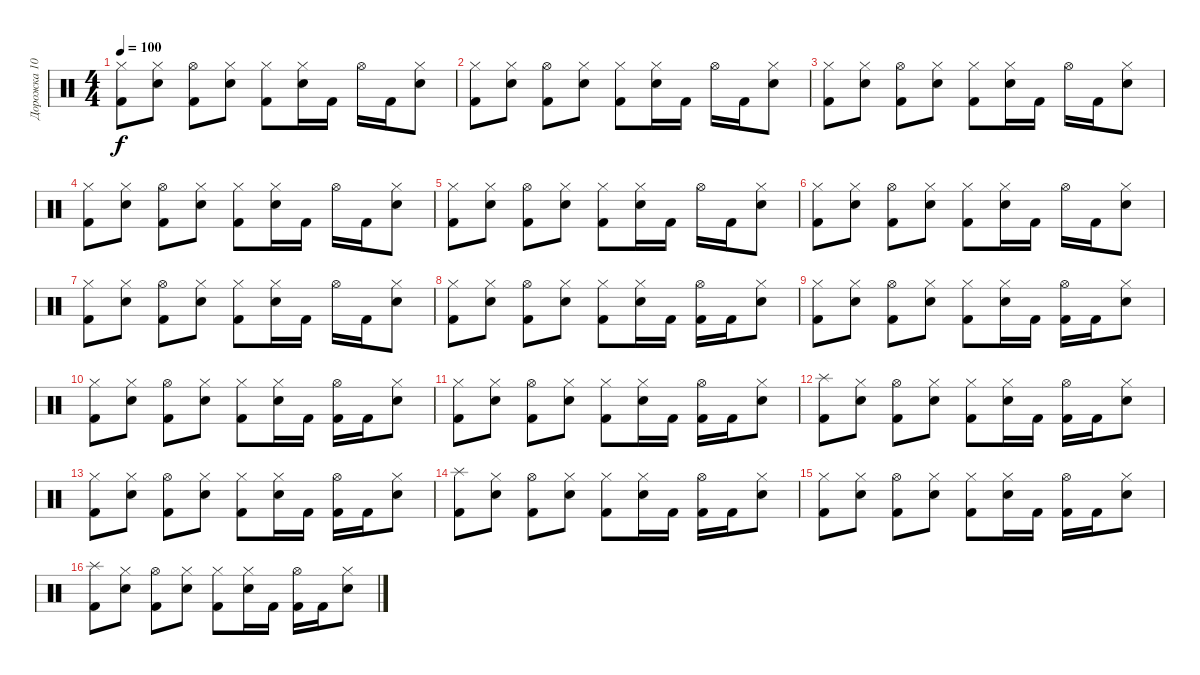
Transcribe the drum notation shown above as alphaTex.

\track ("Дорожка 10" "Дорожка 10") {instrument percussion}
\staff {score}
\articulation defaults
\ts (4 4)
\tempo 100
\clef neutral
\ks c
("Kick (hit) 2" "Hi-Hat (closed)").8{dy f} ("Electric Snare (hit)" "Hi-Hat (closed)").8 ("Kick (hit) 2" "Hi-Hat (open)").8 ("Electric Snare (hit)" "Hi-Hat (closed)").8 ("Kick (hit) 2" "Hi-Hat (closed)").8 ("Electric Snare (hit)" "Hi-Hat (closed)").16 "Kick (hit) 2".16 "Hi-Hat (open)".16 "Kick (hit) 2".16 ("Electric Snare (hit)" "Hi-Hat (closed)").8 |
("Kick (hit) 2" "Hi-Hat (closed)").8 ("Electric Snare (hit)" "Hi-Hat (closed)").8 ("Kick (hit) 2" "Hi-Hat (open)").8 ("Electric Snare (hit)" "Hi-Hat (closed)").8 ("Kick (hit) 2" "Hi-Hat (closed)").8 ("Electric Snare (hit)" "Hi-Hat (closed)").16 "Kick (hit) 2".16 "Hi-Hat (open)".16 "Kick (hit) 2".16 ("Electric Snare (hit)" "Hi-Hat (closed)").8 |
("Kick (hit) 2" "Hi-Hat (closed)").8 ("Electric Snare (hit)" "Hi-Hat (closed)").8 ("Kick (hit) 2" "Hi-Hat (open)").8 ("Electric Snare (hit)" "Hi-Hat (closed)").8 ("Kick (hit) 2" "Hi-Hat (closed)").8 ("Electric Snare (hit)" "Hi-Hat (closed)").16 "Kick (hit) 2".16 "Hi-Hat (open)".16 "Kick (hit) 2".16 ("Electric Snare (hit)" "Hi-Hat (closed)").8 |
("Kick (hit) 2" "Hi-Hat (closed)").8 ("Electric Snare (hit)" "Hi-Hat (closed)").8 ("Kick (hit) 2" "Hi-Hat (open)").8 ("Electric Snare (hit)" "Hi-Hat (closed)").8 ("Kick (hit) 2" "Hi-Hat (closed)").8 ("Electric Snare (hit)" "Hi-Hat (closed)").16 "Kick (hit) 2".16 "Hi-Hat (open)".16 "Kick (hit) 2".16 ("Electric Snare (hit)" "Hi-Hat (closed)").8 |
("Kick (hit) 2" "Hi-Hat (closed)").8 ("Electric Snare (hit)" "Hi-Hat (closed)").8 ("Kick (hit) 2" "Hi-Hat (open)").8 ("Electric Snare (hit)" "Hi-Hat (closed)").8 ("Kick (hit) 2" "Hi-Hat (closed)").8 ("Electric Snare (hit)" "Hi-Hat (closed)").16 "Kick (hit) 2".16 "Hi-Hat (open)".16 "Kick (hit) 2".16 ("Electric Snare (hit)" "Hi-Hat (closed)").8 |
("Kick (hit) 2" "Hi-Hat (closed)").8 ("Electric Snare (hit)" "Hi-Hat (closed)").8 ("Kick (hit) 2" "Hi-Hat (open)").8 ("Electric Snare (hit)" "Hi-Hat (closed)").8 ("Kick (hit) 2" "Hi-Hat (closed)").8 ("Electric Snare (hit)" "Hi-Hat (closed)").16 "Kick (hit) 2".16 "Hi-Hat (open)".16 "Kick (hit) 2".16 ("Electric Snare (hit)" "Hi-Hat (closed)").8 |
("Kick (hit) 2" "Hi-Hat (closed)").8 ("Electric Snare (hit)" "Hi-Hat (closed)").8 ("Kick (hit) 2" "Hi-Hat (open)").8 ("Electric Snare (hit)" "Hi-Hat (closed)").8 ("Kick (hit) 2" "Hi-Hat (closed)").8 ("Electric Snare (hit)" "Hi-Hat (closed)").16 "Kick (hit) 2".16 "Hi-Hat (open)".16 "Kick (hit) 2".16 ("Electric Snare (hit)" "Hi-Hat (closed)").8 |
("Kick (hit) 2" "Hi-Hat (closed)").8 ("Electric Snare (hit)" "Hi-Hat (closed)").8 ("Kick (hit) 2" "Hi-Hat (open)").8 ("Electric Snare (hit)" "Hi-Hat (closed)").8 ("Kick (hit) 2" "Hi-Hat (closed)").8 ("Electric Snare (hit)" "Hi-Hat (closed)").16 "Kick (hit) 2".16 ("Kick (hit) 2" "Hi-Hat (open)").16 "Kick (hit) 2".16 ("Electric Snare (hit)" "Hi-Hat (closed)").8 |
("Kick (hit) 2" "Hi-Hat (closed)").8 ("Electric Snare (hit)" "Hi-Hat (closed)").8 ("Kick (hit) 2" "Hi-Hat (open)").8 ("Electric Snare (hit)" "Hi-Hat (closed)").8 ("Kick (hit) 2" "Hi-Hat (closed)").8 ("Electric Snare (hit)" "Hi-Hat (closed)").16 "Kick (hit) 2".16 ("Kick (hit) 2" "Hi-Hat (open)").16 "Kick (hit) 2".16 ("Electric Snare (hit)" "Hi-Hat (closed)").8 |
("Kick (hit) 2" "Hi-Hat (closed)").8 ("Electric Snare (hit)" "Hi-Hat (closed)").8 ("Kick (hit) 2" "Hi-Hat (open)").8 ("Electric Snare (hit)" "Hi-Hat (closed)").8 ("Kick (hit) 2" "Hi-Hat (closed)").8 ("Electric Snare (hit)" "Hi-Hat (closed)").16 "Kick (hit) 2".16 ("Kick (hit) 2" "Hi-Hat (open)").16 "Kick (hit) 2".16 ("Electric Snare (hit)" "Hi-Hat (closed)").8 |
("Kick (hit) 2" "Hi-Hat (closed)").8 ("Electric Snare (hit)" "Hi-Hat (closed)").8 ("Kick (hit) 2" "Hi-Hat (open)").8 ("Electric Snare (hit)" "Hi-Hat (closed)").8 ("Kick (hit) 2" "Hi-Hat (closed)").8 ("Electric Snare (hit)" "Hi-Hat (closed)").16 "Kick (hit) 2".16 ("Kick (hit) 2" "Hi-Hat (open)").16 "Kick (hit) 2".16 ("Electric Snare (hit)" "Hi-Hat (closed)").8 |
("Kick (hit) 2" "Splash (hit)").8 ("Electric Snare (hit)" "Hi-Hat (closed)").8 ("Kick (hit) 2" "Hi-Hat (open)").8 ("Electric Snare (hit)" "Hi-Hat (closed)").8 ("Kick (hit) 2" "Hi-Hat (closed)").8 ("Electric Snare (hit)" "Hi-Hat (closed)").16 "Kick (hit) 2".16 ("Kick (hit) 2" "Hi-Hat (open)").16 "Kick (hit) 2".16 ("Electric Snare (hit)" "Hi-Hat (closed)").8 |
("Kick (hit) 2" "Hi-Hat (closed)").8 ("Electric Snare (hit)" "Hi-Hat (closed)").8 ("Kick (hit) 2" "Hi-Hat (open)").8 ("Electric Snare (hit)" "Hi-Hat (closed)").8 ("Kick (hit) 2" "Hi-Hat (closed)").8 ("Electric Snare (hit)" "Hi-Hat (closed)").16 "Kick (hit) 2".16 ("Kick (hit) 2" "Hi-Hat (open)").16 "Kick (hit) 2".16 ("Electric Snare (hit)" "Hi-Hat (closed)").8 |
("Kick (hit) 2" "Splash (hit)").8 ("Electric Snare (hit)" "Hi-Hat (closed)").8 ("Kick (hit) 2" "Hi-Hat (open)").8 ("Electric Snare (hit)" "Hi-Hat (closed)").8 ("Kick (hit) 2" "Hi-Hat (closed)").8 ("Electric Snare (hit)" "Hi-Hat (closed)").16 "Kick (hit) 2".16 ("Kick (hit) 2" "Hi-Hat (open)").16 "Kick (hit) 2".16 ("Electric Snare (hit)" "Hi-Hat (closed)").8 |
("Kick (hit) 2" "Hi-Hat (closed)").8 ("Electric Snare (hit)" "Hi-Hat (closed)").8 ("Kick (hit) 2" "Hi-Hat (open)").8 ("Electric Snare (hit)" "Hi-Hat (closed)").8 ("Kick (hit) 2" "Hi-Hat (closed)").8 ("Electric Snare (hit)" "Hi-Hat (closed)").16 "Kick (hit) 2".16 ("Kick (hit) 2" "Hi-Hat (open)").16 "Kick (hit) 2".16 ("Electric Snare (hit)" "Hi-Hat (closed)").8 |
("Kick (hit) 2" "Splash (hit)").8 ("Electric Snare (hit)" "Hi-Hat (closed)").8 ("Kick (hit) 2" "Hi-Hat (open)").8 ("Electric Snare (hit)" "Hi-Hat (closed)").8 ("Kick (hit) 2" "Hi-Hat (closed)").8 ("Electric Snare (hit)" "Hi-Hat (closed)").16 "Kick (hit) 2".16 ("Kick (hit) 2" "Hi-Hat (open)").16 "Kick (hit) 2".16 ("Electric Snare (hit)" "Hi-Hat (closed)").8
